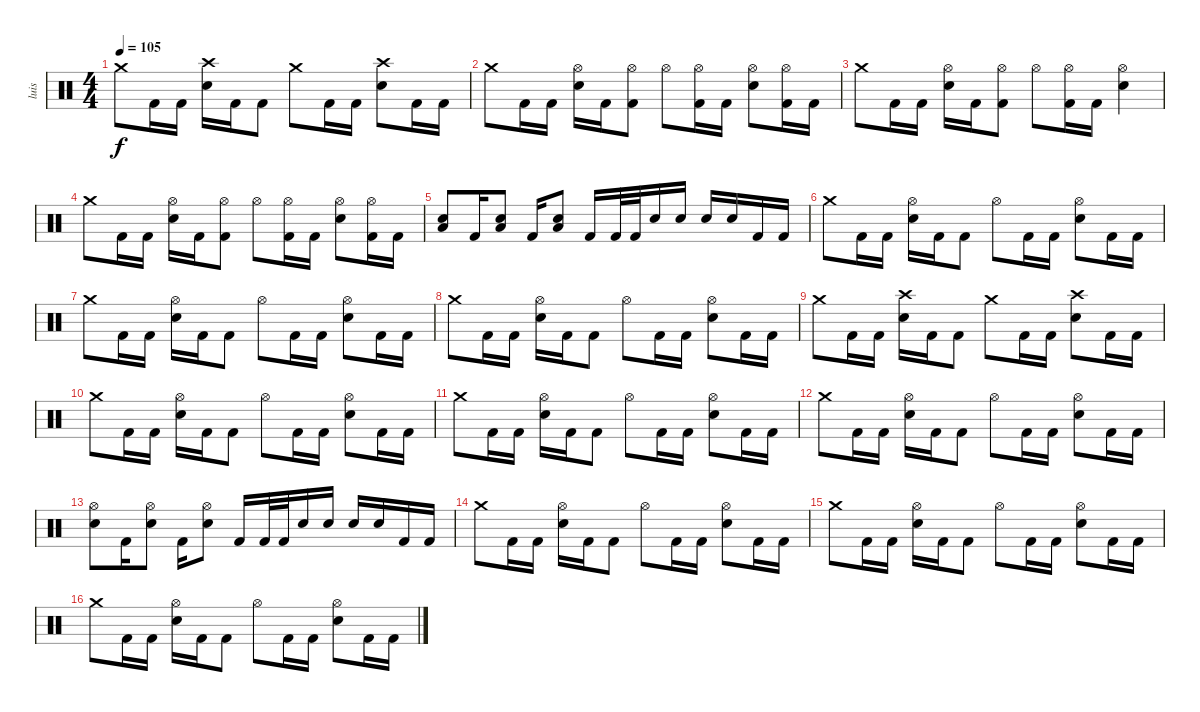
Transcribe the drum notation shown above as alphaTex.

\track ("luis" "luis") {instrument percussion}
\staff {score}
\articulation defaults
\ts (4 4)
\tempo 105
\clef neutral
\ks c "Crash medium (hit)".8{dy f} "Kick (hit) 2".16 "Kick (hit) 2".16
("Crash high (hit)" "Electric Snare (hit)").16 "Kick (hit) 2".16 "Kick (hit) 2".8 "Crash medium (hit)".8 "Kick (hit) 2".16 "Kick (hit) 2".16 ("Crash high (hit)" "Electric Snare (hit)").8 "Kick (hit) 2".16 "Kick (hit) 2".16 |
"Crash medium (hit)".8 "Kick (hit) 2".16 "Kick (hit) 2".16 ("Hi-Hat (open)" "Electric Snare (hit)").16 "Kick (hit) 2".16 ("Hi-Hat (open)" "Kick (hit) 2").8 "Hi-Hat (open)".8 ("Hi-Hat (open)" "Kick (hit) 2").16 "Kick (hit) 2".16 ("Hi-Hat (open)" "Electric Snare (hit)").8 ("Hi-Hat (open)" "Kick (hit) 2").16 "Kick (hit) 2".16 |
"Crash medium (hit)".8 "Kick (hit) 2".16 "Kick (hit) 2".16 ("Hi-Hat (open)" "Electric Snare (hit)").16 "Kick (hit) 2".16 ("Hi-Hat (open)" "Kick (hit) 2").8 "Hi-Hat (open)".8 ("Hi-Hat (open)" "Kick (hit) 2").16 "Kick (hit) 2".16 ("Hi-Hat (open)" "Electric Snare (hit)").4 |
"Crash medium (hit)".8 "Kick (hit) 2".16 "Kick (hit) 2".16 ("Hi-Hat (open)" "Electric Snare (hit)").16 "Kick (hit) 2".16 ("Hi-Hat (open)" "Kick (hit) 2").8 "Hi-Hat (open)".8 ("Hi-Hat (open)" "Kick (hit) 2").16 "Kick (hit) 2".16 ("Hi-Hat (open)" "Electric Snare (hit)").8 ("Hi-Hat (open)" "Kick (hit) 2").16 "Kick (hit) 2".16 |
("Low Tom (hit)" "Electric Snare (hit)").8 "Kick (hit) 2".16 ("Low Tom (hit)" "Electric Snare (hit)").8 "Kick (hit) 2".16 ("Low Tom (hit)" "Electric Snare (hit)").8 "Kick (hit) 2".16 "Kick (hit) 2".32 "Kick (hit) 2".32 "Electric Snare (hit)".16 "Electric Snare (hit)".16 "Electric Snare (hit)".16 "Electric Snare (hit)".16 "Kick (hit) 2".16 "Kick (hit) 2".16 |
"Crash medium (hit)".8 "Kick (hit) 2".16 "Kick (hit) 2".16 ("Hi-Hat (open)" "Electric Snare (hit)").16 "Kick (hit) 2".16 "Kick (hit) 2".8 "Hi-Hat (open)".8 "Kick (hit) 2".16 "Kick (hit) 2".16 ("Hi-Hat (open)" "Electric Snare (hit)").8 "Kick (hit) 2".16 "Kick (hit) 2".16 |
"Crash medium (hit)".8 "Kick (hit) 2".16 "Kick (hit) 2".16 ("Hi-Hat (open)" "Electric Snare (hit)").16 "Kick (hit) 2".16 "Kick (hit) 2".8 "Hi-Hat (open)".8 "Kick (hit) 2".16 "Kick (hit) 2".16 ("Hi-Hat (open)" "Electric Snare (hit)").8 "Kick (hit) 2".16 "Kick (hit) 2".16 |
"Crash medium (hit)".8 "Kick (hit) 2".16 "Kick (hit) 2".16 ("Hi-Hat (open)" "Electric Snare (hit)").16 "Kick (hit) 2".16 "Kick (hit) 2".8 "Hi-Hat (open)".8 "Kick (hit) 2".16 "Kick (hit) 2".16 ("Hi-Hat (open)" "Electric Snare (hit)").8 "Kick (hit) 2".16 "Kick (hit) 2".16 |
"Crash medium (hit)".8 "Kick (hit) 2".16 "Kick (hit) 2".16 ("Crash high (hit)" "Electric Snare (hit)").16 "Kick (hit) 2".16 "Kick (hit) 2".8 "Crash medium (hit)".8 "Kick (hit) 2".16 "Kick (hit) 2".16 ("Crash high (hit)" "Electric Snare (hit)").8 "Kick (hit) 2".16 "Kick (hit) 2".16 |
"Crash medium (hit)".8 "Kick (hit) 2".16 "Kick (hit) 2".16 ("Hi-Hat (open)" "Electric Snare (hit)").16 "Kick (hit) 2".16 "Kick (hit) 2".8 "Hi-Hat (open)".8 "Kick (hit) 2".16 "Kick (hit) 2".16 ("Hi-Hat (open)" "Electric Snare (hit)").8 "Kick (hit) 2".16 "Kick (hit) 2".16 |
"Crash medium (hit)".8 "Kick (hit) 2".16 "Kick (hit) 2".16 ("Hi-Hat (open)" "Electric Snare (hit)").16 "Kick (hit) 2".16 "Kick (hit) 2".8 "Hi-Hat (open)".8 "Kick (hit) 2".16 "Kick (hit) 2".16 ("Hi-Hat (open)" "Electric Snare (hit)").8 "Kick (hit) 2".16 "Kick (hit) 2".16 |
"Crash medium (hit)".8 "Kick (hit) 2".16 "Kick (hit) 2".16 ("Hi-Hat (open)" "Electric Snare (hit)").16 "Kick (hit) 2".16 "Kick (hit) 2".8 "Hi-Hat (open)".8 "Kick (hit) 2".16 "Kick (hit) 2".16 ("Hi-Hat (open)" "Electric Snare (hit)").8 "Kick (hit) 2".16 "Kick (hit) 2".16 |
("Hi-Hat (open)" "Electric Snare (hit)").8 "Kick (hit) 2".16 ("Hi-Hat (open)" "Electric Snare (hit)").8 "Kick (hit) 2".16 ("Hi-Hat (open)" "Electric Snare (hit)").8 "Kick (hit) 2".16 "Kick (hit) 2".32 "Kick (hit) 2".32 "Electric Snare (hit)".16 "Electric Snare (hit)".16 "Electric Snare (hit)".16 "Electric Snare (hit)".16 "Kick (hit) 2".16 "Kick (hit) 2".16 |
"Crash medium (hit)".8 "Kick (hit) 2".16 "Kick (hit) 2".16 ("Hi-Hat (open)" "Electric Snare (hit)").16 "Kick (hit) 2".16 "Kick (hit) 2".8 "Hi-Hat (open)".8 "Kick (hit) 2".16 "Kick (hit) 2".16 ("Hi-Hat (open)" "Electric Snare (hit)").8 "Kick (hit) 2".16 "Kick (hit) 2".16 |
"Crash medium (hit)".8 "Kick (hit) 2".16 "Kick (hit) 2".16 ("Hi-Hat (open)" "Electric Snare (hit)").16 "Kick (hit) 2".16 "Kick (hit) 2".8 "Hi-Hat (open)".8 "Kick (hit) 2".16 "Kick (hit) 2".16 ("Hi-Hat (open)" "Electric Snare (hit)").8 "Kick (hit) 2".16 "Kick (hit) 2".16 |
"Crash medium (hit)".8 "Kick (hit) 2".16 "Kick (hit) 2".16 ("Hi-Hat (open)" "Electric Snare (hit)").16 "Kick (hit) 2".16 "Kick (hit) 2".8 "Hi-Hat (open)".8 "Kick (hit) 2".16 "Kick (hit) 2".16 ("Hi-Hat (open)" "Electric Snare (hit)").8 "Kick (hit) 2".16 "Kick (hit) 2".16
